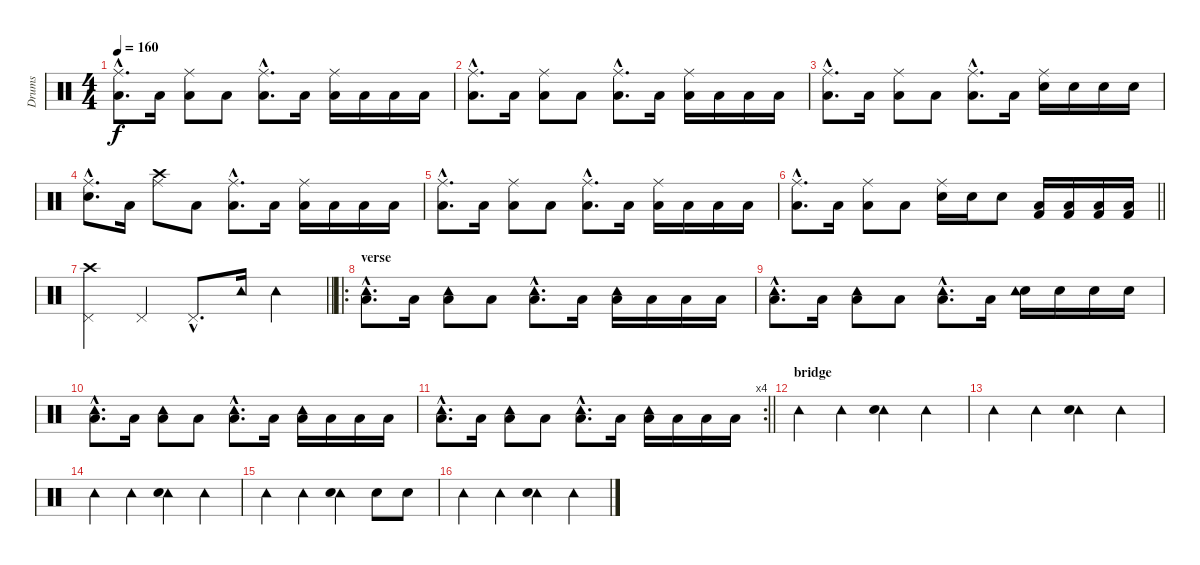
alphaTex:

\track ("Drums" "Drums") {instrument percussion}
\staff {score}
\articulation defaults
\ts (4 4)
\tempo 160
\clef neutral
\ks c
("Ride (middle)"{hac} "Low Tom (hit)"{hac}).8{d dy f} "Low Tom (hit)".16 ("Ride (middle)" "Low Tom (hit)").8 "Low Tom (hit)".8 ("Ride (middle)"{hac} "Low Tom (hit)"{hac}).8{d} "Low Tom (hit)".16 ("Ride (middle)" "Low Tom (hit)").16 "Low Tom (hit)".16 "Low Tom (hit)".16 "Low Tom (hit)".16 |
("Ride (middle)"{hac} "Low Tom (hit)"{hac}).8{d} "Low Tom (hit)".16 ("Ride (middle)" "Low Tom (hit)").8 "Low Tom (hit)".8 ("Ride (middle)"{hac} "Low Tom (hit)"{hac}).8{d} "Low Tom (hit)".16 ("Ride (middle)" "Low Tom (hit)").16 "Low Tom (hit)".16 "Low Tom (hit)".16 "Low Tom (hit)".16 |
("Ride (middle)"{hac} "Low Tom (hit)"{hac}).8{d} "Low Tom (hit)".16 ("Ride (middle)" "Low Tom (hit)").8 "Low Tom (hit)".8 ("Ride (middle)"{hac} "Low Tom (hit)"{hac}).8{d} "Low Tom (hit)".16 ("Ride (middle)" "Snare (hit) 2").16 "Snare (hit) 2".16 "Snare (hit) 2".16 "Snare (hit) 2".16 |
("Ride (middle)"{hac} "Snare (hit) 2"{hac}).8{d} "Low Tom (hit)".16 ("Ride (middle)" "Crash high (hit)").8 "Low Tom (hit)".8 ("Ride (middle)"{hac} "Low Tom (hit)"{hac}).8{d} "Low Tom (hit)".16 ("Ride (middle)" "Low Tom (hit)").16 "Low Tom (hit)".16 "Low Tom (hit)".16 "Low Tom (hit)".16 |
("Ride (middle)"{hac} "Low Tom (hit)"{hac}).8{d} "Low Tom (hit)".16 ("Ride (middle)" "Low Tom (hit)").8 "Low Tom (hit)".8 ("Ride (middle)"{hac} "Low Tom (hit)"{hac}).8{d} "Low Tom (hit)".16 ("Ride (middle)" "Low Tom (hit)").16 "Low Tom (hit)".16 "Low Tom (hit)".16 "Low Tom (hit)".16 |
\barLineRight lightlight
("Ride (middle)"{hac} "Low Tom (hit)"{hac}).8{d} "Low Tom (hit)".16 ("Ride (middle)" "Low Tom (hit)").8 "Low Tom (hit)".8 ("Ride (middle)" "Snare (hit) 2").16 "Snare (hit) 2".16 "Snare (hit) 2".8 ("Kick (hit) 2" "Low Tom (hit)").16 ("Kick (hit) 2" "Low Tom (hit)").16 ("Kick (hit) 2" "Low Tom (hit)").16 ("Kick (hit) 2" "Low Tom (hit)").16 |
\barLineRight lightlight
("Crash high (hit)" "Pedal Hi-Hat (hit)").4 "Pedal Hi-Hat (hit)".4 "Pedal Hi-Hat (hit)"{hac}.8{d} "Tambourine (hit)".16 "Tambourine (hit)".4 |
\ro
\section ("" "verse")
("Tambourine (hit)"{hac} "Low Tom (hit)"{hac}).8{d} "Low Tom (hit)".16 ("Tambourine (hit)" "Low Tom (hit)").8 "Low Tom (hit)".8 ("Tambourine (hit)"{hac} "Low Tom (hit)"{hac}).8{d} "Low Tom (hit)".16 ("Tambourine (hit)" "Low Tom (hit)").16 "Low Tom (hit)".16 "Low Tom (hit)".16 "Low Tom (hit)".16 |
("Low Tom (hit)"{hac} "Tambourine (hit)"{hac}).8{d} "Low Tom (hit)".16 ("Low Tom (hit)" "Tambourine (hit)").8 "Low Tom (hit)".8 ("Low Tom (hit)"{hac} "Tambourine (hit)"{hac}).8{d} "Low Tom (hit)".16 ("Snare (hit) 2" "Tambourine (hit)").16 "Snare (hit) 2".16 "Snare (hit) 2".16 "Snare (hit) 2".16 |
("Low Tom (hit)"{hac} "Tambourine (hit)"{hac}).8{d} "Low Tom (hit)".16 ("Low Tom (hit)" "Tambourine (hit)").8 "Low Tom (hit)".8 ("Low Tom (hit)"{hac} "Tambourine (hit)"{hac}).8{d} "Low Tom (hit)".16 ("Low Tom (hit)" "Tambourine (hit)").16 "Low Tom (hit)".16 "Low Tom (hit)".16 "Low Tom (hit)".16 |
\rc 4
\barLineRight lightlight
("Low Tom (hit)"{hac} "Tambourine (hit)"{hac}).8{d} "Low Tom (hit)".16 ("Low Tom (hit)" "Tambourine (hit)").8 "Low Tom (hit)".8 ("Low Tom (hit)"{hac} "Tambourine (hit)"{hac}).8{d} "Low Tom (hit)".16 ("Low Tom (hit)" "Tambourine (hit)").16 "Low Tom (hit)".16 "Low Tom (hit)".16 "Low Tom (hit)".16 |
\section ("" "bridge")
"Tambourine (hit)".4 "Tambourine (hit)".4 ("Tambourine (hit)" "Snare (hit) 2").4 "Tambourine (hit)".4 |
"Tambourine (hit)".4 "Tambourine (hit)".4 ("Tambourine (hit)" "Snare (hit) 2").4 "Tambourine (hit)".4 |
"Tambourine (hit)".4 "Tambourine (hit)".4 ("Tambourine (hit)" "Snare (hit) 2").4 "Tambourine (hit)".4 |
"Tambourine (hit)".4 "Tambourine (hit)".4 ("Tambourine (hit)" "Snare (hit) 2").4 "Electric Snare (hit)".8 "Electric Snare (hit)".8 |
"Tambourine (hit)".4 "Tambourine (hit)".4 ("Tambourine (hit)" "Snare (hit) 2").4 "Tambourine (hit)".4
